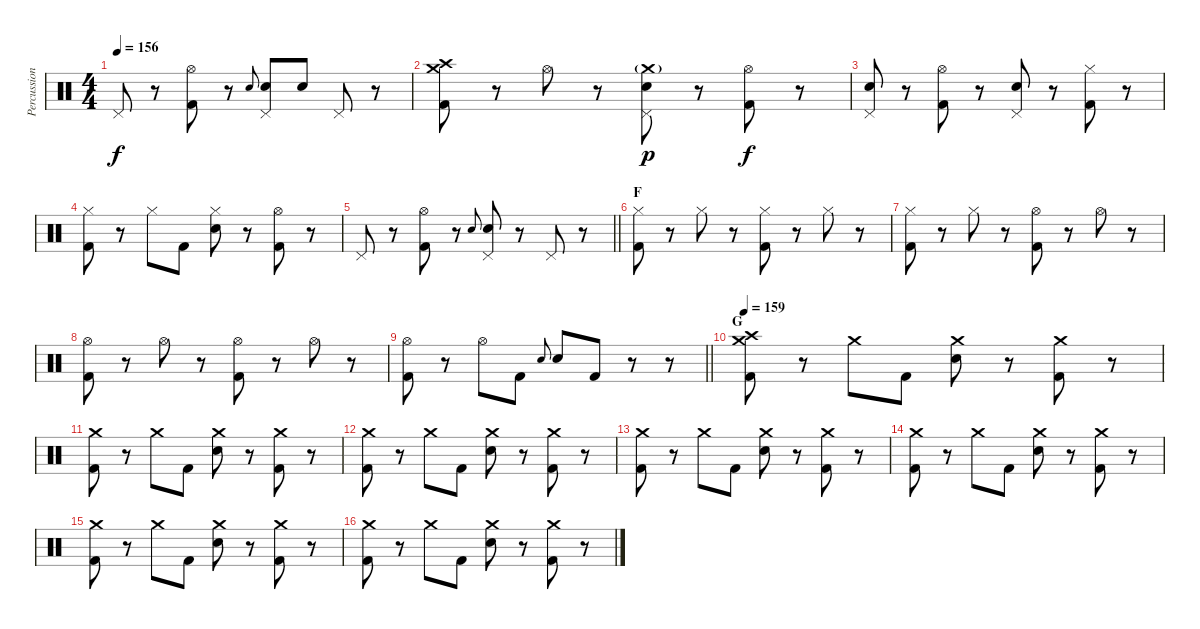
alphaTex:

\track ("Percussion" "Percussion") {instrument percussion}
\staff {score}
\articulation defaults
\ts (4 4)
\tempo 156
\clef neutral
\ks c "Pedal Hi-Hat (hit)".8{dy f}
r.8 ("Hi-Hat (open)" "Kick (hit) 2").8 r.8 "Snare (hit) 2".8{gr onbeat} ("Pedal Hi-Hat (hit)" "Snare (hit) 2").8 "Snare (hit) 2".8 "Pedal Hi-Hat (hit)".8 r.8 |
("Crash high (hit)" "Crash medium (hit)" "Kick (hit) 2").8 r.8 "Hi-Hat (open)".8 r.8 ("Crash medium (hit)"{g} "Pedal Hi-Hat (hit)" "Snare (hit) 2").8{dy p} r.8 ("Hi-Hat (open)" "Kick (hit) 2").8{dy f} r.8 |
("Pedal Hi-Hat (hit)" "Snare (hit) 2").8 r.8 ("Hi-Hat (open)" "Kick (hit) 2").8 r.8 ("Pedal Hi-Hat (hit)" "Snare (hit) 2").8 r.8 ("Hi-Hat (closed)" "Kick (hit) 2").8 r.8 |
("Hi-Hat (closed)" "Kick (hit) 2").8 r.8 "Hi-Hat (closed)".8 "Kick (hit) 2".8 ("Hi-Hat (closed)" "Snare (hit) 2").8 r.8 ("Hi-Hat (open)" "Kick (hit) 2").8 r.8 |
\barLineRight lightlight "Pedal Hi-Hat (hit)".8
r.8 ("Hi-Hat (open)" "Kick (hit) 2").8 r.8 "Snare (hit) 2".8{gr onbeat} ("Pedal Hi-Hat (hit)" "Snare (hit) 2").8 r.8 "Pedal Hi-Hat (hit)".8 r.8 |
\section ("" "F")
("Hi-Hat (closed)" "Kick (hit) 2").8 r.8 "Hi-Hat (closed)".8 r.8 ("Hi-Hat (closed)" "Kick (hit) 2").8 r.8 "Hi-Hat (closed)".8 r.8 |
("Hi-Hat (closed)" "Kick (hit) 2").8 r.8 "Hi-Hat (closed)".8 r.8 ("Hi-Hat (open)" "Kick (hit) 2").8 r.8 "Hi-Hat (open)".8 r.8 |
("Hi-Hat (open)" "Kick (hit) 2").8 r.8 "Hi-Hat (open)".8 r.8 ("Hi-Hat (open)" "Kick (hit) 2").8 r.8 "Hi-Hat (open)".8 r.8 |
\barLineRight lightlight
("Hi-Hat (open)" "Kick (hit) 2").8 r.8 "Hi-Hat (open)".8 "Kick (hit) 2".8 "Snare (hit) 2".8{gr onbeat} "Snare (hit) 2".8 "Kick (hit) 2".8 r.8 r.8 |
\section ("" "G")
\tempo 159
("Crash high (hit)" "Crash medium (hit)" "Kick (hit) 2").8 r.8 "Crash medium (hit)".8 "Kick (hit) 2".8 ("Crash medium (hit)" "Snare (hit) 2").8 r.8 ("Crash medium (hit)" "Kick (hit) 2").8 r.8 |
("Crash medium (hit)" "Kick (hit) 2").8 r.8 "Crash medium (hit)".8 "Kick (hit) 2".8 ("Crash medium (hit)" "Snare (hit) 2").8 r.8 ("Crash medium (hit)" "Kick (hit) 2").8 r.8 |
("Crash medium (hit)" "Kick (hit) 2").8 r.8 "Crash medium (hit)".8 "Kick (hit) 2".8 ("Crash medium (hit)" "Snare (hit) 2").8 r.8 ("Crash medium (hit)" "Kick (hit) 2").8 r.8 |
("Crash medium (hit)" "Kick (hit) 2").8 r.8 "Crash medium (hit)".8 "Kick (hit) 2".8 ("Crash medium (hit)" "Snare (hit) 2").8 r.8 ("Crash medium (hit)" "Kick (hit) 2").8 r.8 |
("Crash medium (hit)" "Kick (hit) 2").8 r.8 "Crash medium (hit)".8 "Kick (hit) 2".8 ("Crash medium (hit)" "Snare (hit) 2").8 r.8 ("Crash medium (hit)" "Kick (hit) 2").8 r.8 |
("Crash medium (hit)" "Kick (hit) 2").8 r.8 "Crash medium (hit)".8 "Kick (hit) 2".8 ("Crash medium (hit)" "Snare (hit) 2").8 r.8 ("Crash medium (hit)" "Kick (hit) 2").8 r.8 |
("Crash medium (hit)" "Kick (hit) 2").8 r.8 "Crash medium (hit)".8 "Kick (hit) 2".8 ("Crash medium (hit)" "Snare (hit) 2").8 r.8 ("Crash medium (hit)" "Kick (hit) 2").8 r.8
